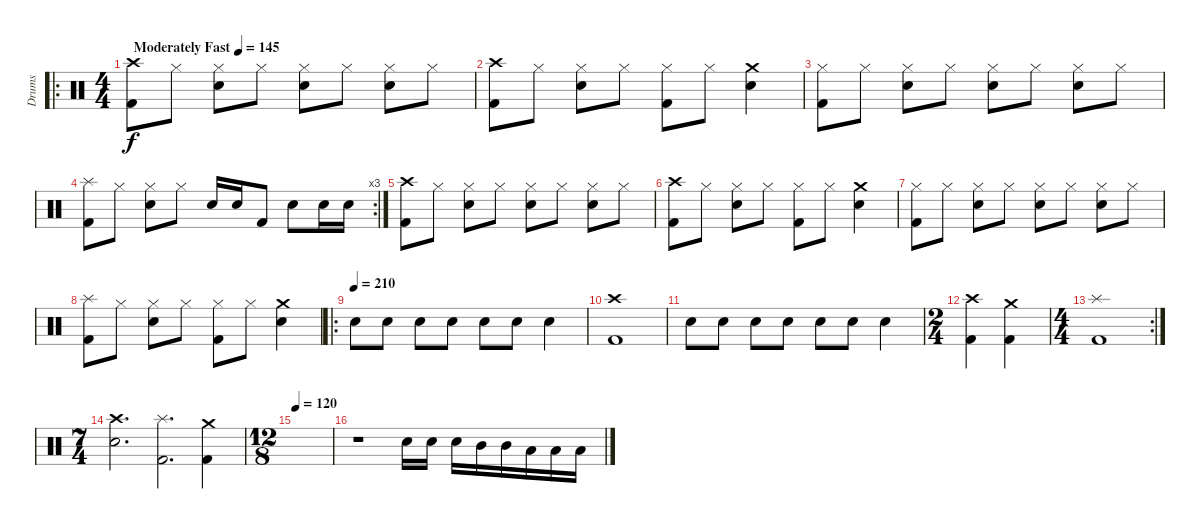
\track ("Drums" "Drums") {instrument percussion}
\staff {score}
\articulation defaults
\ro
\ts (4 4)
\tempo (145 "Moderately Fast")
\clef neutral
\ks c
("Crash high (hit)" "Kick (hit) 2").8{dy f} "Hi-Hat (closed)".8 ("Hi-Hat (closed)" "Snare (hit) 2").8 "Hi-Hat (closed)".8 ("Hi-Hat (closed)" "Snare (hit) 2").8 "Hi-Hat (closed)".8 ("Hi-Hat (closed)" "Snare (hit) 2").8 "Hi-Hat (closed)".8 |
("Crash high (hit)" "Kick (hit) 2").8 "Hi-Hat (closed)".8 ("Hi-Hat (closed)" "Snare (hit) 2").8 "Hi-Hat (closed)".8 ("Hi-Hat (closed)" "Kick (hit) 2").8 "Hi-Hat (closed)".8 ("Crash medium (hit)" "Snare (hit) 2").4 |
("Hi-Hat (closed)" "Kick (hit) 2").8 "Hi-Hat (closed)".8 ("Hi-Hat (closed)" "Snare (hit) 2").8 "Hi-Hat (closed)".8 ("Hi-Hat (closed)" "Snare (hit) 2").8 "Hi-Hat (closed)".8 ("Hi-Hat (closed)" "Snare (hit) 2").8 "Hi-Hat (closed)".8 |
\rc 3
("Splash (hit)" "Kick (hit) 2").8 "Hi-Hat (closed)".8 ("Hi-Hat (closed)" "Snare (hit) 2").8 "Hi-Hat (closed)".8 "Snare (hit) 2".16 "Snare (hit) 2".16 "Kick (hit) 2".8 "Snare (hit) 2".8 "Snare (hit) 2".16 "Snare (hit) 2".16 |
("Crash high (hit)" "Kick (hit) 2").8 "Hi-Hat (closed)".8 ("Hi-Hat (closed)" "Snare (hit) 2").8 "Hi-Hat (closed)".8 ("Hi-Hat (closed)" "Snare (hit) 2").8 "Hi-Hat (closed)".8 ("Hi-Hat (closed)" "Snare (hit) 2").8 "Hi-Hat (closed)".8 |
("Crash high (hit)" "Kick (hit) 2").8 "Hi-Hat (closed)".8 ("Hi-Hat (closed)" "Snare (hit) 2").8 "Hi-Hat (closed)".8 ("Hi-Hat (closed)" "Kick (hit) 2").8 "Hi-Hat (closed)".8 ("Crash medium (hit)" "Snare (hit) 2").4 |
("Hi-Hat (closed)" "Kick (hit) 2").8 "Hi-Hat (closed)".8 ("Hi-Hat (closed)" "Snare (hit) 2").8 "Hi-Hat (closed)".8 ("Hi-Hat (closed)" "Snare (hit) 2").8 "Hi-Hat (closed)".8 ("Hi-Hat (closed)" "Snare (hit) 2").8 "Hi-Hat (closed)".8 |
("Splash (hit)" "Kick (hit) 2").8 "Hi-Hat (closed)".8 ("Hi-Hat (closed)" "Snare (hit) 2").8 "Hi-Hat (closed)".8 ("Hi-Hat (closed)" "Kick (hit) 2").8 "Hi-Hat (closed)".8 ("Crash medium (hit)" "Snare (hit) 2").4 |
\ro
\tempo (210)
"Snare (hit) 2".8 "Snare (hit) 2".8 "Snare (hit) 2".8 "Snare (hit) 2".8 "Snare (hit) 2".8 "Snare (hit) 2".8 "Snare (hit) 2".4 |
("Crash high (hit)" "Kick (hit) 2").1 |
"Snare (hit) 2".8 "Snare (hit) 2".8 "Snare (hit) 2".8 "Snare (hit) 2".8 "Snare (hit) 2".8 "Snare (hit) 2".8 "Snare (hit) 2".4 |
\ts (2 4)
("Crash high (hit)" "Kick (hit) 2").4 ("Crash medium (hit)" "Kick (hit) 2").4 |
\rc 2
\ts (4 4)
("Splash (hit)" "Kick (hit) 2").1 |
\ts (7 4)
("Crash high (hit)" "Snare (hit) 2").2{d} ("Splash (hit)" "Kick (hit) 2").2{d} ("Crash medium (hit)" "Kick (hit) 2").4 |
\ts (12 8)
\tempo 120
|
r.1 "Snare (hit) 2".16 "Snare (hit) 2".16 "Snare (hit) 2".16 "Mid Tom (hit)".16 "Mid Tom (hit)".16 "Low Tom (hit)".16 "Low Tom (hit)".16 "Low Tom (hit)".16
